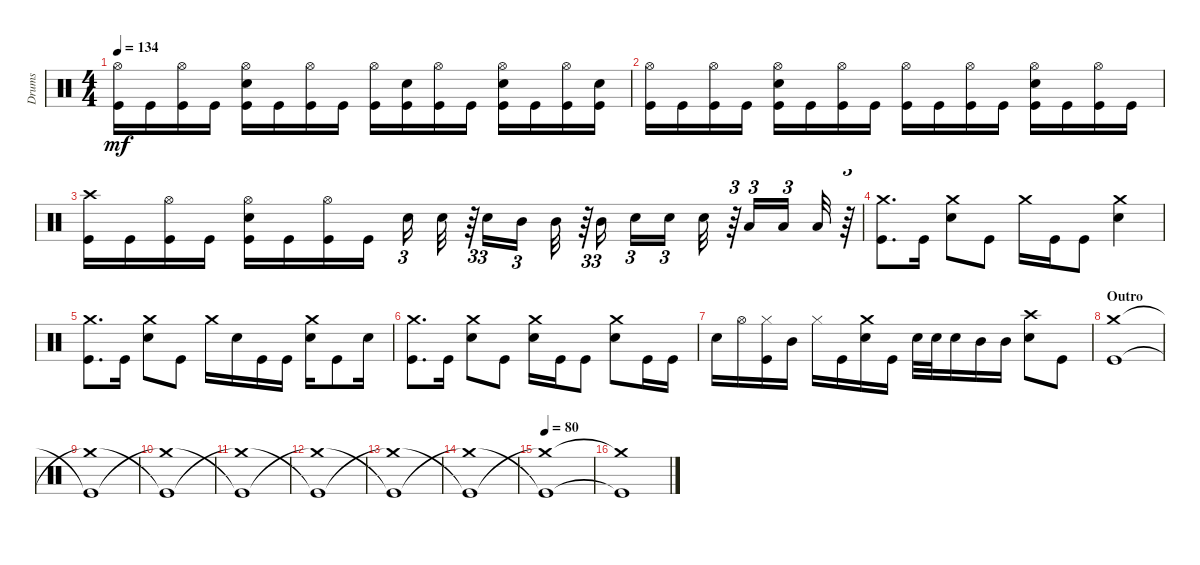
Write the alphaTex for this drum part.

\track ("Drums" "Drums") {instrument percussion}
\staff {score}
\articulation defaults
\ts (4 4)
\tempo 134
\clef neutral
\ks aminor
("Kick (hit)" "Hi-Hat (open)").16{dy mf} "Kick (hit)".16 ("Kick (hit)" "Hi-Hat (open)").16 "Kick (hit)".16 ("Snare (hit) 2" "Kick (hit)" "Hi-Hat (open)").16 "Kick (hit)".16 ("Kick (hit)" "Hi-Hat (open)").16 "Kick (hit)".16 ("Hi-Hat (open)" "Kick (hit)").16 ("Snare (hit) 2" "Kick (hit)").16 ("Hi-Hat (open)" "Kick (hit)").16 "Kick (hit)".16 ("Snare (hit) 2" "Hi-Hat (open)" "Kick (hit)").16 "Kick (hit)".16 ("Kick (hit)" "Hi-Hat (open)").16 ("Snare (hit) 2" "Kick (hit)").16 |
("Hi-Hat (open)" "Kick (hit)").16 "Kick (hit)".16 ("Hi-Hat (open)" "Kick (hit)").16 "Kick (hit)".16 ("Snare (hit) 2" "Hi-Hat (open)" "Kick (hit)").16 "Kick (hit)".16 ("Kick (hit)" "Hi-Hat (open)").16 "Kick (hit)".16 ("Hi-Hat (open)" "Kick (hit)").16 "Kick (hit)".16 ("Kick (hit)" "Hi-Hat (open)").16 "Kick (hit)".16 ("Snare (hit) 2" "Hi-Hat (open)" "Kick (hit)").16 "Kick (hit)".16 ("Hi-Hat (open)" "Kick (hit)").16 "Kick (hit)".16 |
("Kick (hit)" "Crash high (hit)").16 "Kick (hit)".16 ("Kick (hit)" "Hi-Hat (open)").16 "Kick (hit)".16 ("Snare (hit) 2" "Kick (hit)" "Hi-Hat (open)").16 "Kick (hit)".16 ("Hi-Hat (open)" "Kick (hit)").16 "Kick (hit)".16 "Snare (hit) 2".16{tu (3 2)} "Snare (hit) 2".32 r.64{tu (3 2)} "Snare (hit) 2".16{tu (3 2)} "Mid Tom (hit)".16{tu (3 2)} "Mid Tom (hit)".32 r.64{tu (3 2)} "Mid Tom (hit)".16{tu (3 2)} "Snare (hit) 2".16{tu (3 2)} "Snare (hit) 2".16{tu (3 2)} "Snare (hit) 2".32 r.64{tu (3 2)} "Low Tom (hit)".16{tu (3 2)} "Low Tom (hit)".16{tu (3 2)} "Low Tom (hit)".32 r.64{tu (3 2)} |
("Crash medium (hit)" "Kick (hit)").8{d} "Kick (hit)".16 ("Snare (hit) 2" "Crash medium (hit)").8 "Kick (hit)".8 "Crash medium (hit)".16 "Kick (hit)".16 "Kick (hit)".8 ("Crash medium (hit)" "Snare (hit) 2").4 |
("Crash medium (hit)" "Kick (hit)").8{d} "Kick (hit)".16 ("Crash medium (hit)" "Snare (hit) 2").8 "Kick (hit)".8 "Crash medium (hit)".16 "Snare (hit) 2".16 "Kick (hit)".16 "Kick (hit)".16 ("Snare (hit) 2" "Crash medium (hit)").16 "Kick (hit)".8 "Snare (hit) 2".16 |
("Crash medium (hit)" "Kick (hit)").8{d} "Kick (hit)".16 ("Crash medium (hit)" "Snare (hit) 2").8 "Kick (hit)".8 ("Crash medium (hit)" "Snare (hit) 2").16 "Kick (hit)".16 "Kick (hit)".8 ("Snare (hit) 2" "Crash medium (hit)").8 "Kick (hit)".16 "Kick (hit)".16 |
"Snare (hit) 2".16 "Hi-Hat (open)".16 ("Kick (hit)" "Hi-Hat (closed)").16 "Mid Tom (hit)".16 "Hi-Hat (closed)".16 "Kick (hit)".16 ("Snare (hit) 2" "Crash medium (hit)").16 "Kick (hit)".16 "Snare (hit) 2".32 "Snare (hit) 2".32 "Snare (hit) 2".16 "Mid Tom (hit)".16 "Mid Tom (hit)".16 ("Snare (hit) 2" "Crash high (hit)").8 "Kick (hit)".8 |
\section ("" "Outro")
("Crash medium (hit)" "Kick (hit)").1 |
("Kick (hit)"{t} "Crash medium (hit)"{t}).1 |
("Crash medium (hit)"{t} "Kick (hit)"{t}).1 |
("Kick (hit)"{t} "Crash medium (hit)"{t}).1 |
("Crash medium (hit)"{t} "Kick (hit)"{t}).1 |
("Kick (hit)"{t} "Crash medium (hit)"{t}).1 |
("Crash medium (hit)"{t} "Kick (hit)"{t}).1 |
\tempo 80
("Kick (hit)"{t} "Crash medium (hit)"{t}).1 |
("Kick (hit)"{t} "Crash medium (hit)"{t}).1
